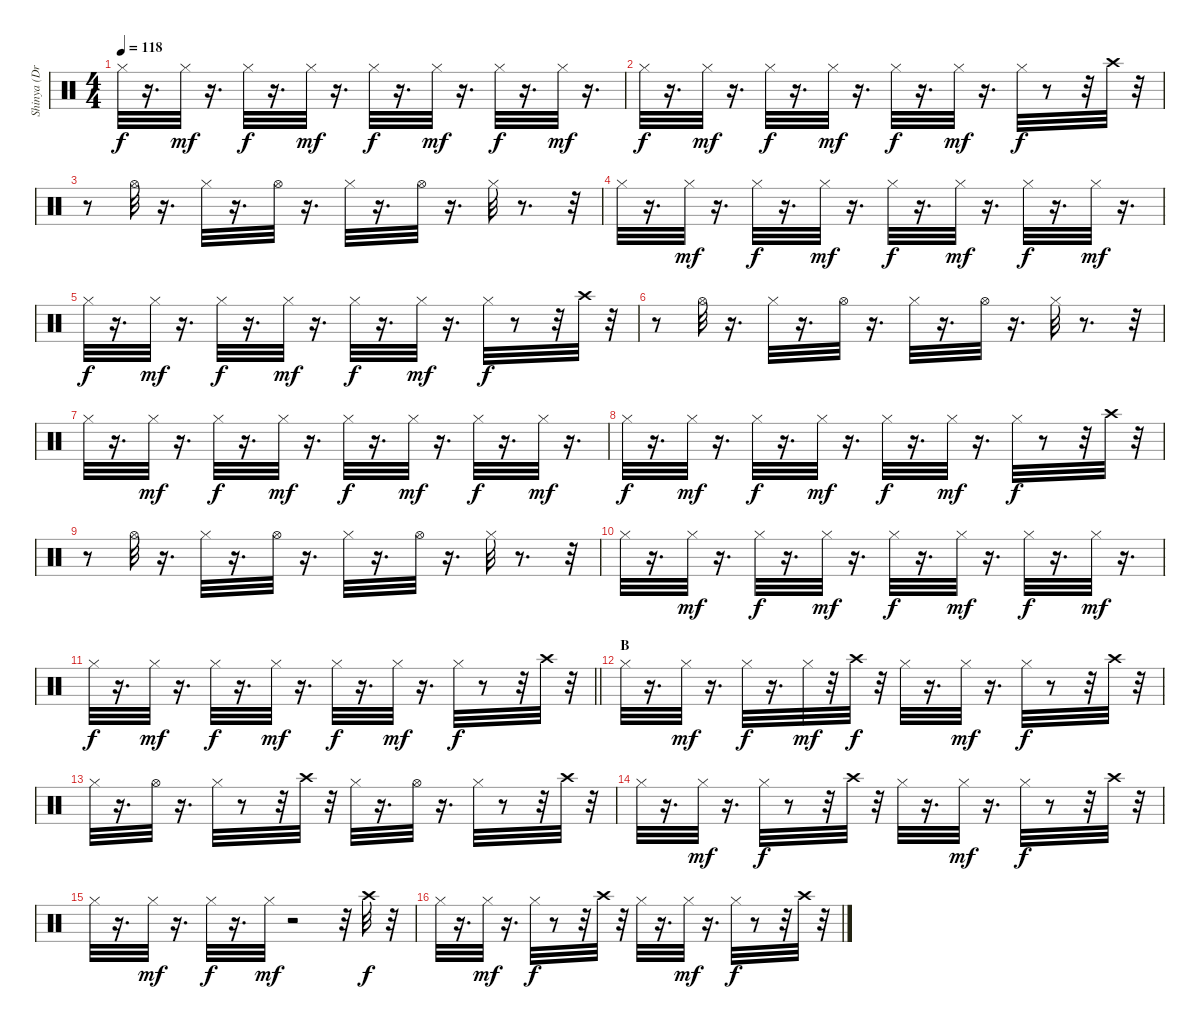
\track ("Shinya (Drums)" "Shinya (Dr") {instrument percussion}
\staff {score}
\articulation defaults
\ts (4 4)
\tempo 118
\clef neutral
\ks c "Hi-Hat (closed)".32{dy f}
r.16{d} "Hi-Hat (closed)".32{dy mf} r.16{d} "Hi-Hat (closed)".32{dy f} r.16{d} "Hi-Hat (closed)".32{dy mf} r.16{d} "Hi-Hat (closed)".32{dy f} r.16{d} "Hi-Hat (closed)".32{dy mf} r.16{d} "Hi-Hat (closed)".32{dy f} r.16{d} "Hi-Hat (closed)".32{dy mf} r.16{d} |
"Hi-Hat (closed)".32{dy f} r.16{d} "Hi-Hat (closed)".32{dy mf} r.16{d} "Hi-Hat (closed)".32{dy f} r.16{d} "Hi-Hat (closed)".32{dy mf} r.16{d} "Hi-Hat (closed)".32{dy f} r.16{d} "Hi-Hat (closed)".32{dy mf} r.16{d} "Hi-Hat (closed)".32{dy f} r.8 r.32 "Crash high (hit)".32 r.32 |
r.8 "Hi-Hat (open)".32 r.16{d} "Hi-Hat (closed)".32 r.16{d} "Hi-Hat (open)".32 r.16{d} "Hi-Hat (closed)".32 r.16{d} "Hi-Hat (open)".32 r.16{d} "Hi-Hat (closed)".32 r.8{d} r.32 |
"Hi-Hat (closed)".32 r.16{d} "Hi-Hat (closed)".32{dy mf} r.16{d} "Hi-Hat (closed)".32{dy f} r.16{d} "Hi-Hat (closed)".32{dy mf} r.16{d} "Hi-Hat (closed)".32{dy f} r.16{d} "Hi-Hat (closed)".32{dy mf} r.16{d} "Hi-Hat (closed)".32{dy f} r.16{d} "Hi-Hat (closed)".32{dy mf} r.16{d} |
"Hi-Hat (closed)".32{dy f} r.16{d} "Hi-Hat (closed)".32{dy mf} r.16{d} "Hi-Hat (closed)".32{dy f} r.16{d} "Hi-Hat (closed)".32{dy mf} r.16{d} "Hi-Hat (closed)".32{dy f} r.16{d} "Hi-Hat (closed)".32{dy mf} r.16{d} "Hi-Hat (closed)".32{dy f} r.8 r.32 "Crash high (hit)".32 r.32 |
r.8 "Hi-Hat (open)".32 r.16{d} "Hi-Hat (closed)".32 r.16{d} "Hi-Hat (open)".32 r.16{d} "Hi-Hat (closed)".32 r.16{d} "Hi-Hat (open)".32 r.16{d} "Hi-Hat (closed)".32 r.8{d} r.32 |
"Hi-Hat (closed)".32 r.16{d} "Hi-Hat (closed)".32{dy mf} r.16{d} "Hi-Hat (closed)".32{dy f} r.16{d} "Hi-Hat (closed)".32{dy mf} r.16{d} "Hi-Hat (closed)".32{dy f} r.16{d} "Hi-Hat (closed)".32{dy mf} r.16{d} "Hi-Hat (closed)".32{dy f} r.16{d} "Hi-Hat (closed)".32{dy mf} r.16{d} |
"Hi-Hat (closed)".32{dy f} r.16{d} "Hi-Hat (closed)".32{dy mf} r.16{d} "Hi-Hat (closed)".32{dy f} r.16{d} "Hi-Hat (closed)".32{dy mf} r.16{d} "Hi-Hat (closed)".32{dy f} r.16{d} "Hi-Hat (closed)".32{dy mf} r.16{d} "Hi-Hat (closed)".32{dy f} r.8 r.32 "Crash high (hit)".32 r.32 |
r.8 "Hi-Hat (open)".32 r.16{d} "Hi-Hat (closed)".32 r.16{d} "Hi-Hat (open)".32 r.16{d} "Hi-Hat (closed)".32 r.16{d} "Hi-Hat (open)".32 r.16{d} "Hi-Hat (closed)".32 r.8{d} r.32 |
"Hi-Hat (closed)".32 r.16{d} "Hi-Hat (closed)".32{dy mf} r.16{d} "Hi-Hat (closed)".32{dy f} r.16{d} "Hi-Hat (closed)".32{dy mf} r.16{d} "Hi-Hat (closed)".32{dy f} r.16{d} "Hi-Hat (closed)".32{dy mf} r.16{d} "Hi-Hat (closed)".32{dy f} r.16{d} "Hi-Hat (closed)".32{dy mf} r.16{d} |
\barLineRight lightlight "Hi-Hat (closed)".32{dy f}
r.16{d} "Hi-Hat (closed)".32{dy mf} r.16{d} "Hi-Hat (closed)".32{dy f} r.16{d} "Hi-Hat (closed)".32{dy mf} r.16{d} "Hi-Hat (closed)".32{dy f} r.16{d} "Hi-Hat (closed)".32{dy mf} r.16{d} "Hi-Hat (closed)".32{dy f} r.8 r.32 "Crash high (hit)".32 r.32 |
\section ("" "B")
"Hi-Hat (closed)".32 r.16{d} "Hi-Hat (closed)".32{dy mf} r.16{d} "Hi-Hat (closed)".32{dy f} r.16{d} "Hi-Hat (closed)".32{dy mf} r.32 "Crash high (hit)".32{dy f} r.32 "Hi-Hat (closed)".32 r.16{d} "Hi-Hat (closed)".32{dy mf} r.16{d} "Hi-Hat (closed)".32{dy f} r.8 r.32 "Crash high (hit)".32 r.32 |
"Hi-Hat (closed)".32 r.16{d} "Hi-Hat (open)".32 r.16{d} "Hi-Hat (closed)".32 r.8 r.32 "Crash high (hit)".32 r.32 "Hi-Hat (closed)".32 r.16{d} "Hi-Hat (open)".32 r.16{d} "Hi-Hat (closed)".32 r.8 r.32 "Crash high (hit)".32 r.32 |
"Hi-Hat (closed)".32 r.16{d} "Hi-Hat (closed)".32{dy mf} r.16{d} "Hi-Hat (closed)".32{dy f} r.8 r.32 "Crash high (hit)".32 r.32 "Hi-Hat (closed)".32 r.16{d} "Hi-Hat (closed)".32{dy mf} r.16{d} "Hi-Hat (closed)".32{dy f} r.8 r.32 "Crash high (hit)".32 r.32 |
"Hi-Hat (closed)".32 r.16{d} "Hi-Hat (closed)".32{dy mf} r.16{d} "Hi-Hat (closed)".32{dy f} r.16{d} "Hi-Hat (closed)".32{dy mf} r.2 r.32 "Crash high (hit)".32{dy f} r.32 |
"Hi-Hat (closed)".32 r.16{d} "Hi-Hat (closed)".32{dy mf} r.16{d} "Hi-Hat (closed)".32{dy f} r.8 r.32 "Crash high (hit)".32 r.32 "Hi-Hat (closed)".32 r.16{d} "Hi-Hat (closed)".32{dy mf} r.16{d} "Hi-Hat (closed)".32{dy f} r.8 r.32 "Crash high (hit)".32 r.32
